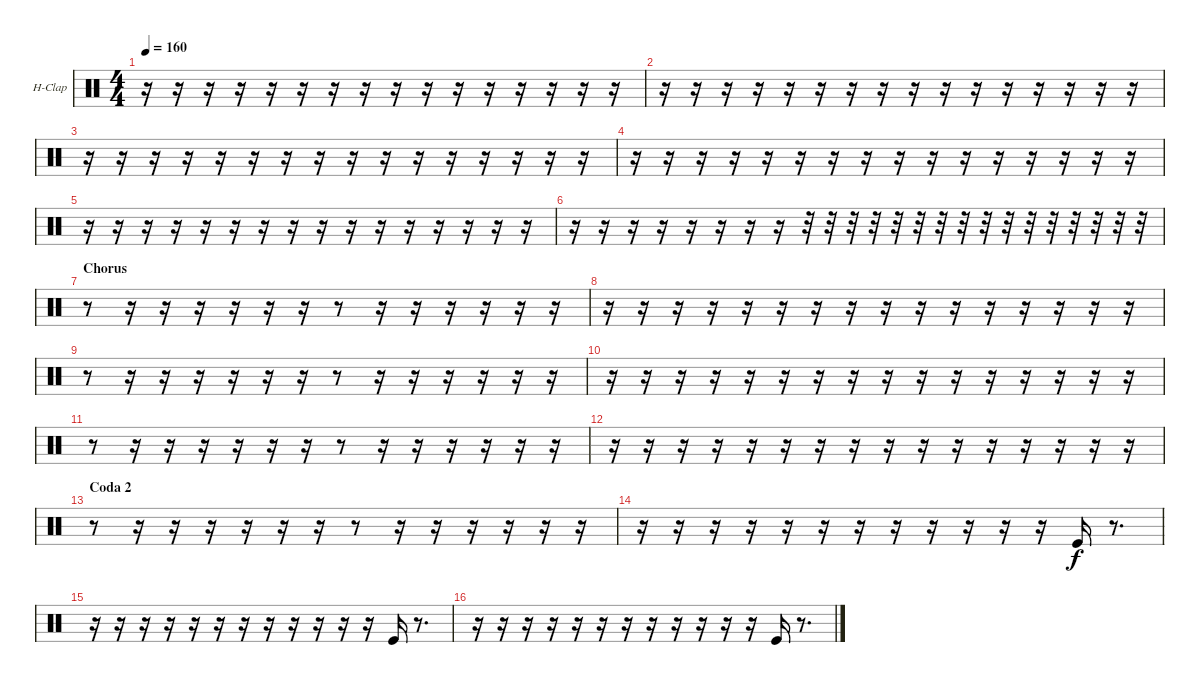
\bracketExtendMode groupsimilarinstruments
\firstSystemTrackNameOrientation horizontal
\otherSystemsTrackNameOrientation horizontal
\track ("Hand Clap" "H-Clap") {mute instrument percussion}
\staff {score}
\articulation defaults
\ts (4 4)
\tempo 160
\clef neutral
\ks c
r.16{dy f} r.16 r.16 r.16 r.16 r.16 r.16 r.16 r.16 r.16 r.16 r.16 r.16 r.16 r.16 r.16 |
r.16 r.16 r.16 r.16 r.16 r.16 r.16 r.16 r.16 r.16 r.16 r.16 r.16 r.16 r.16 r.16 |
r.16 r.16 r.16 r.16 r.16 r.16 r.16 r.16 r.16 r.16 r.16 r.16 r.16 r.16 r.16 r.16 |
r.16 r.16 r.16 r.16 r.16 r.16 r.16 r.16 r.16 r.16 r.16 r.16 r.16 r.16 r.16 r.16 |
r.16 r.16 r.16 r.16 r.16 r.16 r.16 r.16 r.16 r.16 r.16 r.16 r.16 r.16 r.16 r.16 |
r.16 r.16 r.16 r.16 r.16 r.16 r.16 r.16 r.32 r.32 r.32 r.32 r.32 r.32 r.32 r.32 r.32 r.32 r.32 r.32 r.32 r.32 r.32 r.32 |
\section ("" "Chorus")
r.8 r.16 r.16 r.16 r.16 r.16 r.16 r.8 r.16 r.16 r.16 r.16 r.16 r.16 |
r.16 r.16 r.16 r.16 r.16 r.16 r.16 r.16 r.16 r.16 r.16 r.16 r.16 r.16 r.16 r.16 |
r.8 r.16 r.16 r.16 r.16 r.16 r.16 r.8 r.16 r.16 r.16 r.16 r.16 r.16 |
r.16 r.16 r.16 r.16 r.16 r.16 r.16 r.16 r.16 r.16 r.16 r.16 r.16 r.16 r.16 r.16 |
r.8 r.16 r.16 r.16 r.16 r.16 r.16 r.8 r.16 r.16 r.16 r.16 r.16 r.16 |
r.16 r.16 r.16 r.16 r.16 r.16 r.16 r.16 r.16 r.16 r.16 r.16 r.16 r.16 r.16 r.16 |
\section ("" "Coda 2")
r.8 r.16 r.16 r.16 r.16 r.16 r.16 r.8 r.16 r.16 r.16 r.16 r.16 r.16 |
r.16 r.16 r.16 r.16 r.16 r.16 r.16 r.16 r.16 r.16 r.16 r.16 "Kick (hit)".16 r.8{d} |
r.16 r.16 r.16 r.16 r.16 r.16 r.16 r.16 r.16 r.16 r.16 r.16 "Kick (hit)".16 r.8{d} |
r.16 r.16 r.16 r.16 r.16 r.16 r.16 r.16 r.16 r.16 r.16 r.16 "Kick (hit)".16 r.8{d}
